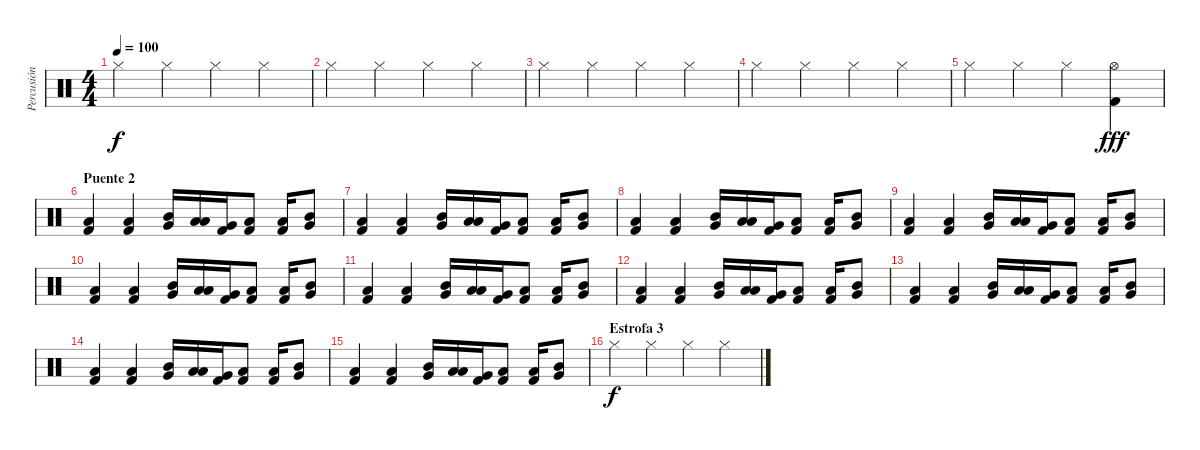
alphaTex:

\track ("Percusión" "Percusión") {instrument percussion}
\staff {score}
\articulation defaults
\ts (4 4)
\tempo 100
\clef neutral
\ks c "Hi-Hat (closed)".4{dy f} "Hi-Hat (closed)".4 "Hi-Hat (closed)".4 "Hi-Hat (closed)".4
|
"Hi-Hat (closed)".4 "Hi-Hat (closed)".4 "Hi-Hat (closed)".4 "Hi-Hat (closed)".4 |
"Hi-Hat (closed)".4 "Hi-Hat (closed)".4 "Hi-Hat (closed)".4 "Hi-Hat (closed)".4 |
"Hi-Hat (closed)".4 "Hi-Hat (closed)".4 "Hi-Hat (closed)".4 "Hi-Hat (closed)".4 |
"Hi-Hat (closed)".4 "Hi-Hat (closed)".4 "Hi-Hat (closed)".4 ("Hi-Hat (open)" "Kick (hit) 2").4{dy fff} |
\section ("" "Puente 2")
("Kick (hit) 2" "Low Floor Tom (hit)").4 ("Kick (hit) 2" "Low Floor Tom (hit)").4 ("Mid Tom (hit)" "Very Low Tom (hit)").16{bd 480} ("Low Tom (hit)" "Low Floor Tom (hit)").16{bd 480} ("Very Low Tom (hit)" "Kick (hit) 2").16{bd 480} ("Kick (hit) 2" "Low Floor Tom (hit)").8 ("Kick (hit) 2" "Low Floor Tom (hit)").16 ("Mid Tom (hit)" "Very Low Tom (hit)").8 |
("Kick (hit) 2" "Low Floor Tom (hit)").4 ("Kick (hit) 2" "Low Floor Tom (hit)").4 ("Mid Tom (hit)" "Very Low Tom (hit)").16{bd 480} ("Low Tom (hit)" "Low Floor Tom (hit)").16{bd 480} ("Very Low Tom (hit)" "Kick (hit) 2").16{bd 480} ("Kick (hit) 2" "Low Floor Tom (hit)").8 ("Kick (hit) 2" "Low Floor Tom (hit)").16 ("Mid Tom (hit)" "Very Low Tom (hit)").8 |
("Kick (hit) 2" "Low Floor Tom (hit)").4 ("Kick (hit) 2" "Low Floor Tom (hit)").4 ("Mid Tom (hit)" "Very Low Tom (hit)").16{bd 480} ("Low Tom (hit)" "Low Floor Tom (hit)").16{bd 480} ("Very Low Tom (hit)" "Kick (hit) 2").16{bd 480} ("Kick (hit) 2" "Low Floor Tom (hit)").8 ("Kick (hit) 2" "Low Floor Tom (hit)").16 ("Mid Tom (hit)" "Very Low Tom (hit)").8 |
("Kick (hit) 2" "Low Floor Tom (hit)").4 ("Kick (hit) 2" "Low Floor Tom (hit)").4 ("Mid Tom (hit)" "Very Low Tom (hit)").16{bd 480} ("Low Tom (hit)" "Low Floor Tom (hit)").16{bd 480} ("Very Low Tom (hit)" "Kick (hit) 2").16{bd 480} ("Kick (hit) 2" "Low Floor Tom (hit)").8 ("Kick (hit) 2" "Low Floor Tom (hit)").16 ("Mid Tom (hit)" "Very Low Tom (hit)").8 |
("Kick (hit) 2" "Low Floor Tom (hit)").4 ("Kick (hit) 2" "Low Floor Tom (hit)").4 ("Mid Tom (hit)" "Very Low Tom (hit)").16{bd 480} ("Low Tom (hit)" "Low Floor Tom (hit)").16{bd 480} ("Very Low Tom (hit)" "Kick (hit) 2").16{bd 480} ("Kick (hit) 2" "Low Floor Tom (hit)").8 ("Kick (hit) 2" "Low Floor Tom (hit)").16 ("Mid Tom (hit)" "Very Low Tom (hit)").8 |
("Kick (hit) 2" "Low Floor Tom (hit)").4 ("Kick (hit) 2" "Low Floor Tom (hit)").4 ("Mid Tom (hit)" "Very Low Tom (hit)").16{bd 480} ("Low Tom (hit)" "Low Floor Tom (hit)").16{bd 480} ("Very Low Tom (hit)" "Kick (hit) 2").16{bd 480} ("Kick (hit) 2" "Low Floor Tom (hit)").8 ("Kick (hit) 2" "Low Floor Tom (hit)").16 ("Mid Tom (hit)" "Very Low Tom (hit)").8 |
("Kick (hit) 2" "Low Floor Tom (hit)").4 ("Kick (hit) 2" "Low Floor Tom (hit)").4 ("Mid Tom (hit)" "Very Low Tom (hit)").16{bd 480} ("Low Tom (hit)" "Low Floor Tom (hit)").16{bd 480} ("Very Low Tom (hit)" "Kick (hit) 2").16{bd 480} ("Kick (hit) 2" "Low Floor Tom (hit)").8 ("Kick (hit) 2" "Low Floor Tom (hit)").16 ("Mid Tom (hit)" "Very Low Tom (hit)").8 |
("Kick (hit) 2" "Low Floor Tom (hit)").4 ("Kick (hit) 2" "Low Floor Tom (hit)").4 ("Mid Tom (hit)" "Very Low Tom (hit)").16{bd 480} ("Low Tom (hit)" "Low Floor Tom (hit)").16{bd 480} ("Very Low Tom (hit)" "Kick (hit) 2").16{bd 480} ("Kick (hit) 2" "Low Floor Tom (hit)").8 ("Kick (hit) 2" "Low Floor Tom (hit)").16 ("Mid Tom (hit)" "Very Low Tom (hit)").8 |
("Kick (hit) 2" "Low Floor Tom (hit)").4 ("Kick (hit) 2" "Low Floor Tom (hit)").4 ("Mid Tom (hit)" "Very Low Tom (hit)").16{bd 480} ("Low Tom (hit)" "Low Floor Tom (hit)").16{bd 480} ("Very Low Tom (hit)" "Kick (hit) 2").16{bd 480} ("Kick (hit) 2" "Low Floor Tom (hit)").8 ("Kick (hit) 2" "Low Floor Tom (hit)").16 ("Mid Tom (hit)" "Very Low Tom (hit)").8 |
("Kick (hit) 2" "Low Floor Tom (hit)").4 ("Kick (hit) 2" "Low Floor Tom (hit)").4 ("Mid Tom (hit)" "Very Low Tom (hit)").16{bd 480} ("Low Tom (hit)" "Low Floor Tom (hit)").16{bd 480} ("Very Low Tom (hit)" "Kick (hit) 2").16{bd 480} ("Kick (hit) 2" "Low Floor Tom (hit)").8 ("Kick (hit) 2" "Low Floor Tom (hit)").16 ("Mid Tom (hit)" "Very Low Tom (hit)").8 |
\section ("" "Estrofa 3")
"Hi-Hat (closed)".4{dy f} "Hi-Hat (closed)".4 "Hi-Hat (closed)".4 "Hi-Hat (closed)".4
